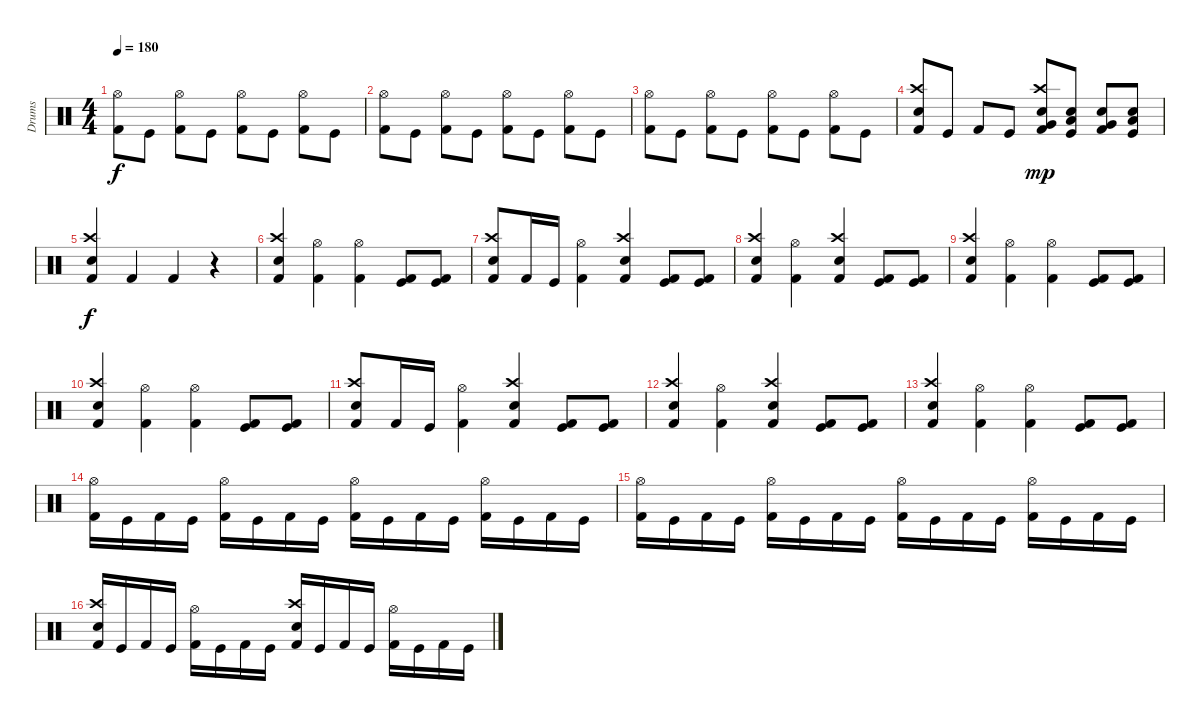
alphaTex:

\track ("Drums" "Drums") {instrument percussion}
\staff {score}
\articulation defaults
\ts (4 4)
\tempo 180
\clef neutral
\ks c
("Kick (hit) 2" "Hi-Hat (open)").8{dy f} "Kick (hit)".8 ("Kick (hit) 2" "Hi-Hat (open)").8 "Kick (hit)".8 ("Kick (hit) 2" "Hi-Hat (open)").8 "Kick (hit)".8 ("Kick (hit) 2" "Hi-Hat (open)").8 "Kick (hit)".8 |
("Kick (hit) 2" "Hi-Hat (open)").8 "Kick (hit)".8 ("Kick (hit) 2" "Hi-Hat (open)").8 "Kick (hit)".8 ("Kick (hit) 2" "Hi-Hat (open)").8 "Kick (hit)".8 ("Kick (hit) 2" "Hi-Hat (open)").8 "Kick (hit)".8 |
("Kick (hit) 2" "Hi-Hat (open)").8 "Kick (hit)".8 ("Kick (hit) 2" "Hi-Hat (open)").8 "Kick (hit)".8 ("Kick (hit) 2" "Hi-Hat (open)").8 "Kick (hit)".8 ("Kick (hit) 2" "Hi-Hat (open)").8 "Kick (hit)".8 |
("Kick (hit) 2" "Crash high (hit)" "Snare (hit) 2").8 "Kick (hit)".8 "Kick (hit) 2".8 "Kick (hit)".8 ("Kick (hit) 2" "Snare (hit) 2" "Very Low Tom (hit)" "Crash high (hit)").8{dy mp} ("Kick (hit)" "Snare (hit) 2" "Low Floor Tom (hit)").8 ("Kick (hit) 2" "Snare (hit) 2" "Very Low Tom (hit)").8 ("Kick (hit)" "Snare (hit) 2" "Low Floor Tom (hit)").8 |
("Kick (hit) 2" "Snare (hit) 2" "Crash high (hit)").4{dy f} "Kick (hit) 2".4 "Kick (hit) 2".4 r.4 |
("Kick (hit) 2" "Snare (hit) 2" "Crash high (hit)").4 ("Kick (hit) 2" "Hi-Hat (open)").4 ("Kick (hit) 2" "Hi-Hat (open)").4 ("Kick (hit) 2" "Kick (hit)").8 ("Kick (hit) 2" "Kick (hit)").8 |
("Kick (hit) 2" "Snare (hit) 2" "Crash high (hit)").8 "Kick (hit) 2".16 "Kick (hit)".16 ("Kick (hit) 2" "Hi-Hat (open)").4 ("Kick (hit) 2" "Snare (hit) 2" "Crash high (hit)").4 ("Kick (hit) 2" "Kick (hit)").8 ("Kick (hit) 2" "Kick (hit)").8 |
("Kick (hit) 2" "Snare (hit) 2" "Crash high (hit)").4 ("Kick (hit) 2" "Hi-Hat (open)").4 ("Kick (hit) 2" "Snare (hit) 2" "Crash high (hit)").4 ("Kick (hit) 2" "Kick (hit)").8 ("Kick (hit) 2" "Kick (hit)").8 |
("Kick (hit) 2" "Snare (hit) 2" "Crash high (hit)").4 ("Kick (hit) 2" "Hi-Hat (open)").4 ("Kick (hit) 2" "Hi-Hat (open)").4 ("Kick (hit) 2" "Kick (hit)").8 ("Kick (hit) 2" "Kick (hit)").8 |
("Kick (hit) 2" "Snare (hit) 2" "Crash high (hit)").4 ("Kick (hit) 2" "Hi-Hat (open)").4 ("Kick (hit) 2" "Hi-Hat (open)").4 ("Kick (hit) 2" "Kick (hit)").8 ("Kick (hit) 2" "Kick (hit)").8 |
("Kick (hit) 2" "Snare (hit) 2" "Crash high (hit)").8 "Kick (hit) 2".16 "Kick (hit)".16 ("Kick (hit) 2" "Hi-Hat (open)").4 ("Kick (hit) 2" "Snare (hit) 2" "Crash high (hit)").4 ("Kick (hit) 2" "Kick (hit)").8 ("Kick (hit) 2" "Kick (hit)").8 |
("Kick (hit) 2" "Snare (hit) 2" "Crash high (hit)").4 ("Kick (hit) 2" "Hi-Hat (open)").4 ("Kick (hit) 2" "Snare (hit) 2" "Crash high (hit)").4 ("Kick (hit) 2" "Kick (hit)").8 ("Kick (hit) 2" "Kick (hit)").8 |
("Kick (hit) 2" "Snare (hit) 2" "Crash high (hit)").4 ("Kick (hit) 2" "Hi-Hat (open)").4 ("Kick (hit) 2" "Hi-Hat (open)").4 ("Kick (hit) 2" "Kick (hit)").8 ("Kick (hit) 2" "Kick (hit)").8 |
("Kick (hit) 2" "Hi-Hat (open)").16 "Kick (hit)".16 "Kick (hit) 2".16 "Kick (hit)".16 ("Kick (hit) 2" "Hi-Hat (open)").16 "Kick (hit)".16 "Kick (hit) 2".16 "Kick (hit)".16 ("Kick (hit) 2" "Hi-Hat (open)").16 "Kick (hit)".16 "Kick (hit) 2".16 "Kick (hit)".16 ("Kick (hit) 2" "Hi-Hat (open)").16 "Kick (hit)".16 "Kick (hit) 2".16 "Kick (hit)".16 |
("Kick (hit) 2" "Hi-Hat (open)").16 "Kick (hit)".16 "Kick (hit) 2".16 "Kick (hit)".16 ("Kick (hit) 2" "Hi-Hat (open)").16 "Kick (hit)".16 "Kick (hit) 2".16 "Kick (hit)".16 ("Kick (hit) 2" "Hi-Hat (open)").16 "Kick (hit)".16 "Kick (hit) 2".16 "Kick (hit)".16 ("Kick (hit) 2" "Hi-Hat (open)").16 "Kick (hit)".16 "Kick (hit) 2".16 "Kick (hit)".16 |
("Kick (hit) 2" "Crash high (hit)" "Snare (hit) 2").16 "Kick (hit)".16 "Kick (hit) 2".16 "Kick (hit)".16 ("Kick (hit) 2" "Hi-Hat (open)").16 "Kick (hit)".16 "Kick (hit) 2".16 "Kick (hit)".16 ("Kick (hit) 2" "Snare (hit) 2" "Crash high (hit)").16 "Kick (hit)".16 "Kick (hit) 2".16 "Kick (hit)".16 ("Kick (hit) 2" "Hi-Hat (open)").16 "Kick (hit)".16 "Kick (hit) 2".16 "Kick (hit)".16
